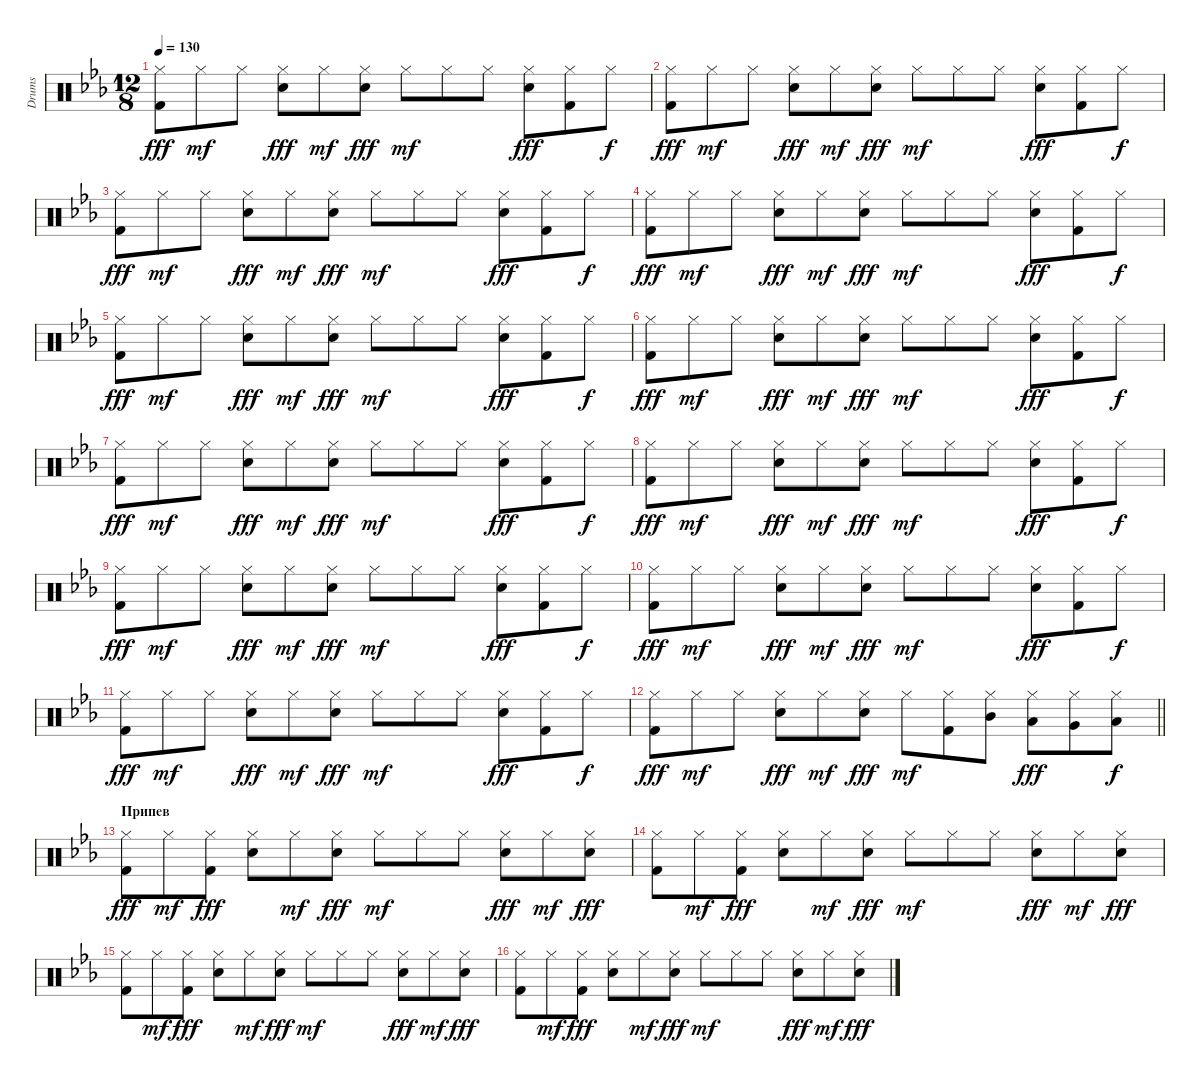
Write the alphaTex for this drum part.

\track ("Drums" "Drums") {instrument percussion}
\staff {score}
\articulation defaults
\ts (12 8)
\tempo 130
\clef neutral
\ks cminor
("Hi-Hat (closed)" "Kick (hit) 2").8{dy fff} "Hi-Hat (closed)".8{dy mf} "Hi-Hat (closed)".8 ("Hi-Hat (closed)" "Electric Snare (hit)").8{dy fff} "Hi-Hat (closed)".8{dy mf} ("Hi-Hat (closed)" "Electric Snare (hit)").8{dy fff} "Hi-Hat (closed)".8{dy mf} "Hi-Hat (closed)".8 "Hi-Hat (closed)".8 ("Hi-Hat (closed)" "Electric Snare (hit)").8{dy fff} ("Hi-Hat (closed)" "Kick (hit) 2").8 "Hi-Hat (closed)".8{dy f} |
("Hi-Hat (closed)" "Kick (hit) 2").8{dy fff} "Hi-Hat (closed)".8{dy mf} "Hi-Hat (closed)".8 ("Hi-Hat (closed)" "Electric Snare (hit)").8{dy fff} "Hi-Hat (closed)".8{dy mf} ("Hi-Hat (closed)" "Electric Snare (hit)").8{dy fff} "Hi-Hat (closed)".8{dy mf} "Hi-Hat (closed)".8 "Hi-Hat (closed)".8 ("Hi-Hat (closed)" "Electric Snare (hit)").8{dy fff} ("Hi-Hat (closed)" "Kick (hit) 2").8 "Hi-Hat (closed)".8{dy f} |
("Hi-Hat (closed)" "Kick (hit) 2").8{dy fff} "Hi-Hat (closed)".8{dy mf} "Hi-Hat (closed)".8 ("Hi-Hat (closed)" "Electric Snare (hit)").8{dy fff} "Hi-Hat (closed)".8{dy mf} ("Hi-Hat (closed)" "Electric Snare (hit)").8{dy fff} "Hi-Hat (closed)".8{dy mf} "Hi-Hat (closed)".8 "Hi-Hat (closed)".8 ("Hi-Hat (closed)" "Electric Snare (hit)").8{dy fff} ("Hi-Hat (closed)" "Kick (hit) 2").8 "Hi-Hat (closed)".8{dy f} |
("Hi-Hat (closed)" "Kick (hit) 2").8{dy fff} "Hi-Hat (closed)".8{dy mf} "Hi-Hat (closed)".8 ("Hi-Hat (closed)" "Electric Snare (hit)").8{dy fff} "Hi-Hat (closed)".8{dy mf} ("Hi-Hat (closed)" "Electric Snare (hit)").8{dy fff} "Hi-Hat (closed)".8{dy mf} "Hi-Hat (closed)".8 "Hi-Hat (closed)".8 ("Hi-Hat (closed)" "Electric Snare (hit)").8{dy fff} ("Hi-Hat (closed)" "Kick (hit) 2").8 "Hi-Hat (closed)".8{dy f} |
("Hi-Hat (closed)" "Kick (hit) 2").8{dy fff} "Hi-Hat (closed)".8{dy mf} "Hi-Hat (closed)".8 ("Hi-Hat (closed)" "Electric Snare (hit)").8{dy fff} "Hi-Hat (closed)".8{dy mf} ("Hi-Hat (closed)" "Electric Snare (hit)").8{dy fff} "Hi-Hat (closed)".8{dy mf} "Hi-Hat (closed)".8 "Hi-Hat (closed)".8 ("Hi-Hat (closed)" "Electric Snare (hit)").8{dy fff} ("Hi-Hat (closed)" "Kick (hit) 2").8 "Hi-Hat (closed)".8{dy f} |
("Hi-Hat (closed)" "Kick (hit) 2").8{dy fff} "Hi-Hat (closed)".8{dy mf} "Hi-Hat (closed)".8 ("Hi-Hat (closed)" "Electric Snare (hit)").8{dy fff} "Hi-Hat (closed)".8{dy mf} ("Hi-Hat (closed)" "Electric Snare (hit)").8{dy fff} "Hi-Hat (closed)".8{dy mf} "Hi-Hat (closed)".8 "Hi-Hat (closed)".8 ("Hi-Hat (closed)" "Electric Snare (hit)").8{dy fff} ("Hi-Hat (closed)" "Kick (hit) 2").8 "Hi-Hat (closed)".8{dy f} |
("Hi-Hat (closed)" "Kick (hit) 2").8{dy fff} "Hi-Hat (closed)".8{dy mf} "Hi-Hat (closed)".8 ("Hi-Hat (closed)" "Electric Snare (hit)").8{dy fff} "Hi-Hat (closed)".8{dy mf} ("Hi-Hat (closed)" "Electric Snare (hit)").8{dy fff} "Hi-Hat (closed)".8{dy mf} "Hi-Hat (closed)".8 "Hi-Hat (closed)".8 ("Hi-Hat (closed)" "Electric Snare (hit)").8{dy fff} ("Hi-Hat (closed)" "Kick (hit) 2").8 "Hi-Hat (closed)".8{dy f} |
("Hi-Hat (closed)" "Kick (hit) 2").8{dy fff} "Hi-Hat (closed)".8{dy mf} "Hi-Hat (closed)".8 ("Hi-Hat (closed)" "Electric Snare (hit)").8{dy fff} "Hi-Hat (closed)".8{dy mf} ("Hi-Hat (closed)" "Electric Snare (hit)").8{dy fff} "Hi-Hat (closed)".8{dy mf} "Hi-Hat (closed)".8 "Hi-Hat (closed)".8 ("Hi-Hat (closed)" "Electric Snare (hit)").8{dy fff} ("Hi-Hat (closed)" "Kick (hit) 2").8 "Hi-Hat (closed)".8{dy f} |
("Hi-Hat (closed)" "Kick (hit) 2").8{dy fff} "Hi-Hat (closed)".8{dy mf} "Hi-Hat (closed)".8 ("Hi-Hat (closed)" "Electric Snare (hit)").8{dy fff} "Hi-Hat (closed)".8{dy mf} ("Hi-Hat (closed)" "Electric Snare (hit)").8{dy fff} "Hi-Hat (closed)".8{dy mf} "Hi-Hat (closed)".8 "Hi-Hat (closed)".8 ("Hi-Hat (closed)" "Electric Snare (hit)").8{dy fff} ("Hi-Hat (closed)" "Kick (hit) 2").8 "Hi-Hat (closed)".8{dy f} |
("Hi-Hat (closed)" "Kick (hit) 2").8{dy fff} "Hi-Hat (closed)".8{dy mf} "Hi-Hat (closed)".8 ("Hi-Hat (closed)" "Electric Snare (hit)").8{dy fff} "Hi-Hat (closed)".8{dy mf} ("Hi-Hat (closed)" "Electric Snare (hit)").8{dy fff} "Hi-Hat (closed)".8{dy mf} "Hi-Hat (closed)".8 "Hi-Hat (closed)".8 ("Hi-Hat (closed)" "Electric Snare (hit)").8{dy fff} ("Hi-Hat (closed)" "Kick (hit) 2").8 "Hi-Hat (closed)".8{dy f} |
("Hi-Hat (closed)" "Kick (hit) 2").8{dy fff} "Hi-Hat (closed)".8{dy mf} "Hi-Hat (closed)".8 ("Hi-Hat (closed)" "Electric Snare (hit)").8{dy fff} "Hi-Hat (closed)".8{dy mf} ("Hi-Hat (closed)" "Electric Snare (hit)").8{dy fff} "Hi-Hat (closed)".8{dy mf} "Hi-Hat (closed)".8 "Hi-Hat (closed)".8 ("Hi-Hat (closed)" "Electric Snare (hit)").8{dy fff} ("Hi-Hat (closed)" "Kick (hit) 2").8 "Hi-Hat (closed)".8{dy f} |
\barLineRight lightlight
("Hi-Hat (closed)" "Kick (hit) 2").8{dy fff} "Hi-Hat (closed)".8{dy mf} "Hi-Hat (closed)".8 ("Hi-Hat (closed)" "Electric Snare (hit)").8{dy fff} "Hi-Hat (closed)".8{dy mf} ("Hi-Hat (closed)" "Electric Snare (hit)").8{dy fff} "Hi-Hat (closed)".8{dy mf} ("Hi-Hat (closed)" "Kick (hit) 2").8 ("Hi-Hat (closed)" "Mid Tom (hit)").8 ("Hi-Hat (closed)" "Low Tom (hit)").8{dy fff} ("Hi-Hat (closed)" "Very Low Tom (hit)").8 ("Hi-Hat (closed)" "Low Floor Tom (hit)").8{dy f} |
\section ("" "Припев")
("Hi-Hat (closed)" "Kick (hit) 2").8{dy fff} "Hi-Hat (closed)".8{dy mf} ("Hi-Hat (closed)" "Kick (hit) 2").8{dy fff} ("Hi-Hat (closed)" "Electric Snare (hit)").8 "Hi-Hat (closed)".8{dy mf} ("Hi-Hat (closed)" "Electric Snare (hit)").8{dy fff} "Hi-Hat (closed)".8{dy mf} "Hi-Hat (closed)".8 "Hi-Hat (closed)".8 ("Hi-Hat (closed)" "Electric Snare (hit)").8{dy fff} "Hi-Hat (closed)".8{dy mf} ("Hi-Hat (closed)" "Electric Snare (hit)").8{dy fff} |
("Hi-Hat (closed)" "Kick (hit) 2").8 "Hi-Hat (closed)".8{dy mf} ("Hi-Hat (closed)" "Kick (hit) 2").8{dy fff} ("Hi-Hat (closed)" "Electric Snare (hit)").8 "Hi-Hat (closed)".8{dy mf} ("Hi-Hat (closed)" "Electric Snare (hit)").8{dy fff} "Hi-Hat (closed)".8{dy mf} "Hi-Hat (closed)".8 "Hi-Hat (closed)".8 ("Hi-Hat (closed)" "Electric Snare (hit)").8{dy fff} "Hi-Hat (closed)".8{dy mf} ("Hi-Hat (closed)" "Electric Snare (hit)").8{dy fff} |
("Hi-Hat (closed)" "Kick (hit) 2").8 "Hi-Hat (closed)".8{dy mf} ("Hi-Hat (closed)" "Kick (hit) 2").8{dy fff} ("Hi-Hat (closed)" "Electric Snare (hit)").8 "Hi-Hat (closed)".8{dy mf} ("Hi-Hat (closed)" "Electric Snare (hit)").8{dy fff} "Hi-Hat (closed)".8{dy mf} "Hi-Hat (closed)".8 "Hi-Hat (closed)".8 ("Hi-Hat (closed)" "Electric Snare (hit)").8{dy fff} "Hi-Hat (closed)".8{dy mf} ("Hi-Hat (closed)" "Electric Snare (hit)").8{dy fff} |
("Hi-Hat (closed)" "Kick (hit) 2").8 "Hi-Hat (closed)".8{dy mf} ("Hi-Hat (closed)" "Kick (hit) 2").8{dy fff} ("Hi-Hat (closed)" "Electric Snare (hit)").8 "Hi-Hat (closed)".8{dy mf} ("Hi-Hat (closed)" "Electric Snare (hit)").8{dy fff} "Hi-Hat (closed)".8{dy mf} "Hi-Hat (closed)".8 "Hi-Hat (closed)".8 ("Hi-Hat (closed)" "Electric Snare (hit)").8{dy fff} "Hi-Hat (closed)".8{dy mf} ("Hi-Hat (closed)" "Electric Snare (hit)").8{dy fff}
